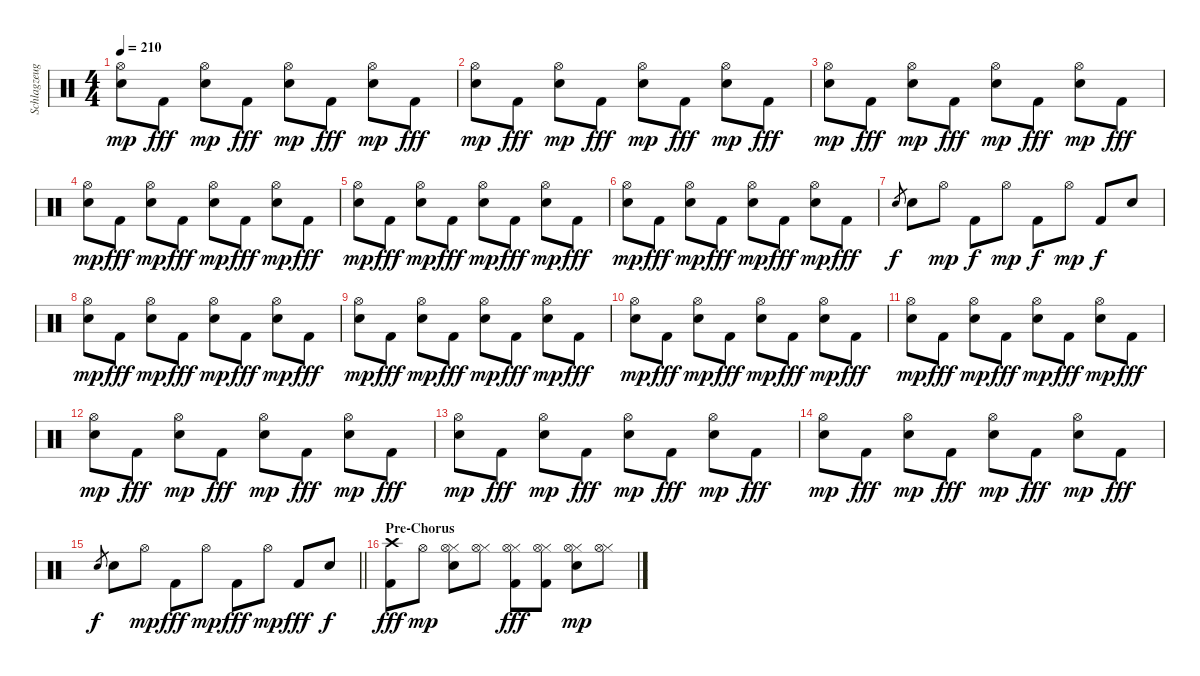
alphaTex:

\track ("Schlagzeug" "Schlagzeug") {instrument percussion}
\staff {score}
\articulation defaults
\ts (4 4)
\tempo 210
\clef neutral
\ks c
("Hi-Hat (open)" "Snare (hit) 2").8{dy mp} "Kick (hit) 2".8{dy fff} ("Hi-Hat (open)" "Snare (hit) 2").8{dy mp} "Kick (hit) 2".8{dy fff} ("Hi-Hat (open)" "Snare (hit) 2").8{dy mp} "Kick (hit) 2".8{dy fff} ("Hi-Hat (open)" "Snare (hit) 2").8{dy mp} "Kick (hit) 2".8{dy fff} |
("Hi-Hat (open)" "Snare (hit) 2").8{dy mp} "Kick (hit) 2".8{dy fff} ("Hi-Hat (open)" "Snare (hit) 2").8{dy mp} "Kick (hit) 2".8{dy fff} ("Hi-Hat (open)" "Snare (hit) 2").8{dy mp} "Kick (hit) 2".8{dy fff} ("Hi-Hat (open)" "Snare (hit) 2").8{dy mp} "Kick (hit) 2".8{dy fff} |
("Hi-Hat (open)" "Snare (hit) 2").8{dy mp} "Kick (hit) 2".8{dy fff} ("Hi-Hat (open)" "Snare (hit) 2").8{dy mp} "Kick (hit) 2".8{dy fff} ("Hi-Hat (open)" "Snare (hit) 2").8{dy mp} "Kick (hit) 2".8{dy fff} ("Hi-Hat (open)" "Snare (hit) 2").8{dy mp} "Kick (hit) 2".8{dy fff} |
("Hi-Hat (open)" "Snare (hit) 2").8{dy mp} "Kick (hit) 2".8{dy fff} ("Hi-Hat (open)" "Snare (hit) 2").8{dy mp} "Kick (hit) 2".8{dy fff} ("Hi-Hat (open)" "Snare (hit) 2").8{dy mp} "Kick (hit) 2".8{dy fff} ("Hi-Hat (open)" "Snare (hit) 2").8{dy mp} "Kick (hit) 2".8{dy fff} |
("Hi-Hat (open)" "Snare (hit) 2").8{dy mp} "Kick (hit) 2".8{dy fff} ("Hi-Hat (open)" "Snare (hit) 2").8{dy mp} "Kick (hit) 2".8{dy fff} ("Hi-Hat (open)" "Snare (hit) 2").8{dy mp} "Kick (hit) 2".8{dy fff} ("Hi-Hat (open)" "Snare (hit) 2").8{dy mp} "Kick (hit) 2".8{dy fff} |
("Hi-Hat (open)" "Snare (hit) 2").8{dy mp} "Kick (hit) 2".8{dy fff} ("Hi-Hat (open)" "Snare (hit) 2").8{dy mp} "Kick (hit) 2".8{dy fff} ("Hi-Hat (open)" "Snare (hit) 2").8{dy mp} "Kick (hit) 2".8{dy fff} ("Hi-Hat (open)" "Snare (hit) 2").8{dy mp} "Kick (hit) 2".8{dy fff} |
"Snare (hit) 2".8{gr dy f} "Snare (hit) 2".8 "Hi-Hat (open)".8{dy mp} "Kick (hit) 2".8{dy f} "Hi-Hat (open)".8{dy mp} "Kick (hit) 2".8{dy f} "Hi-Hat (open)".8{dy mp} "Kick (hit) 2".8{dy f} "Snare (hit) 2".8 |
("Hi-Hat (open)" "Snare (hit) 2").8{dy mp} "Kick (hit) 2".8{dy fff} ("Hi-Hat (open)" "Snare (hit) 2").8{dy mp} "Kick (hit) 2".8{dy fff} ("Hi-Hat (open)" "Snare (hit) 2").8{dy mp} "Kick (hit) 2".8{dy fff} ("Hi-Hat (open)" "Snare (hit) 2").8{dy mp} "Kick (hit) 2".8{dy fff} |
("Hi-Hat (open)" "Snare (hit) 2").8{dy mp} "Kick (hit) 2".8{dy fff} ("Hi-Hat (open)" "Snare (hit) 2").8{dy mp} "Kick (hit) 2".8{dy fff} ("Hi-Hat (open)" "Snare (hit) 2").8{dy mp} "Kick (hit) 2".8{dy fff} ("Hi-Hat (open)" "Snare (hit) 2").8{dy mp} "Kick (hit) 2".8{dy fff} |
("Hi-Hat (open)" "Snare (hit) 2").8{dy mp} "Kick (hit) 2".8{dy fff} ("Hi-Hat (open)" "Snare (hit) 2").8{dy mp} "Kick (hit) 2".8{dy fff} ("Hi-Hat (open)" "Snare (hit) 2").8{dy mp} "Kick (hit) 2".8{dy fff} ("Hi-Hat (open)" "Snare (hit) 2").8{dy mp} "Kick (hit) 2".8{dy fff} |
("Hi-Hat (open)" "Snare (hit) 2").8{dy mp} "Kick (hit) 2".8{dy fff} ("Hi-Hat (open)" "Snare (hit) 2").8{dy mp} "Kick (hit) 2".8{dy fff} ("Hi-Hat (open)" "Snare (hit) 2").8{dy mp} "Kick (hit) 2".8{dy fff} ("Hi-Hat (open)" "Snare (hit) 2").8{dy mp} "Kick (hit) 2".8{dy fff} |
("Hi-Hat (open)" "Snare (hit) 2").8{dy mp} "Kick (hit) 2".8{dy fff} ("Hi-Hat (open)" "Snare (hit) 2").8{dy mp} "Kick (hit) 2".8{dy fff} ("Hi-Hat (open)" "Snare (hit) 2").8{dy mp} "Kick (hit) 2".8{dy fff} ("Hi-Hat (open)" "Snare (hit) 2").8{dy mp} "Kick (hit) 2".8{dy fff} |
("Hi-Hat (open)" "Snare (hit) 2").8{dy mp} "Kick (hit) 2".8{dy fff} ("Hi-Hat (open)" "Snare (hit) 2").8{dy mp} "Kick (hit) 2".8{dy fff} ("Hi-Hat (open)" "Snare (hit) 2").8{dy mp} "Kick (hit) 2".8{dy fff} ("Hi-Hat (open)" "Snare (hit) 2").8{dy mp} "Kick (hit) 2".8{dy fff} |
("Hi-Hat (open)" "Snare (hit) 2").8{dy mp} "Kick (hit) 2".8{dy fff} ("Hi-Hat (open)" "Snare (hit) 2").8{dy mp} "Kick (hit) 2".8{dy fff} ("Hi-Hat (open)" "Snare (hit) 2").8{dy mp} "Kick (hit) 2".8{dy fff} ("Hi-Hat (open)" "Snare (hit) 2").8{dy mp} "Kick (hit) 2".8{dy fff} |
\barLineRight lightlight "Snare (hit) 2".8{gr dy f} "Snare (hit) 2".8 "Hi-Hat (open)".8{dy mp} "Kick (hit) 2".8{dy fff} "Hi-Hat (open)".8{dy mp} "Kick (hit) 2".8{dy fff} "Hi-Hat (open)".8{dy mp} "Kick (hit) 2".8{dy fff} "Snare (hit) 2".8{dy f}
|
\section ("" "Pre-Chorus")
("Crash high (hit)" "Kick (hit) 2").8{dy fff} "Hi-Hat (open)".8{dy mp} ("Hi-Hat (closed)" "Hi-Hat (open)" "Snare (hit) 2").8 ("Hi-Hat (closed)" "Hi-Hat (open)").8 ("Hi-Hat (closed)" "Hi-Hat (open)" "Kick (hit) 2").8{dy fff} ("Hi-Hat (closed)" "Hi-Hat (open)" "Kick (hit) 2").8 ("Hi-Hat (closed)" "Hi-Hat (open)" "Snare (hit) 2").8{dy mp} ("Hi-Hat (closed)" "Hi-Hat (open)").8
